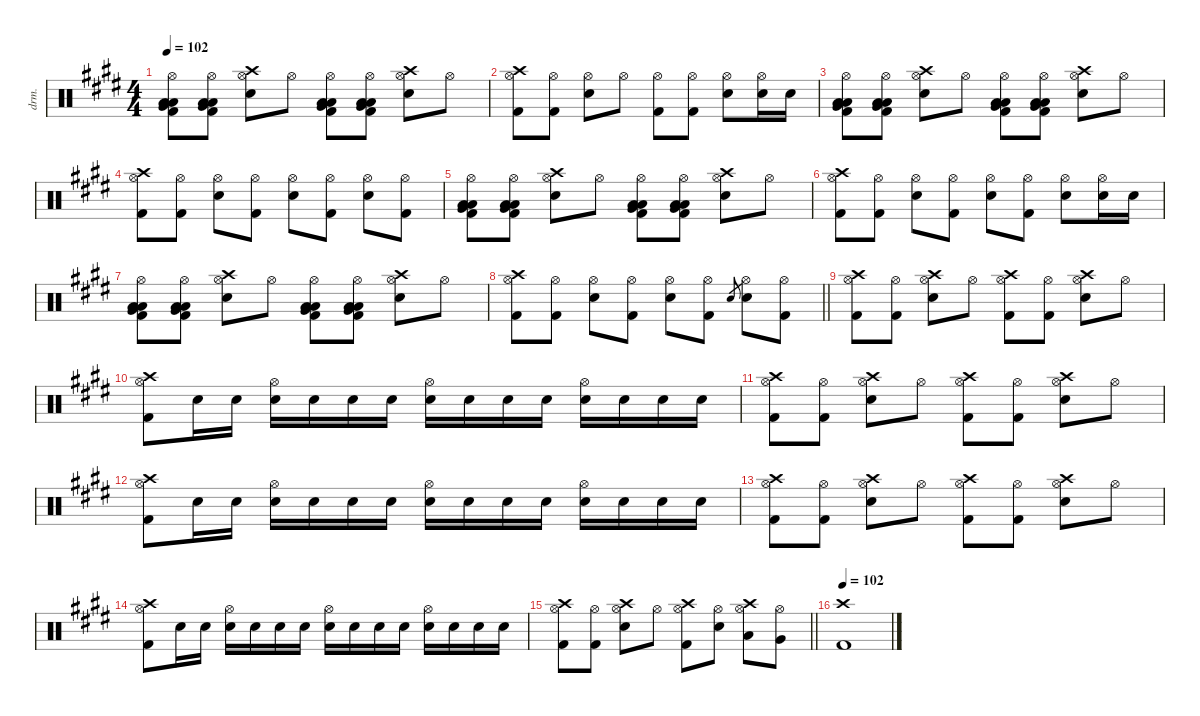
\defaultSystemsLayout 4
\hideDynamics
\bracketExtendMode nobrackets
\otherSystemsTrackNameOrientation horizontal
\track ("Percussion" "drm.") {instrument percussion}
\staff {score}
\articulation defaults
\ts (4 4)
\tempo 102
\clef neutral
\ks c#minor
("Kick (hit) 2"{acc forcenatural} "Hi-Hat (open)"{acc forcenatural} "Low Tom (hit)"{acc forcenatural} "Very Low Tom (hit)"{acc forcenatural} "Low Floor Tom (hit)"{acc forcenatural}).8{dy f beam Down} ("Kick (hit) 2"{acc forcenatural} "Hi-Hat (open)"{acc forcenatural} "Low Tom (hit)"{acc forcenatural} "Very Low Tom (hit)"{acc forcenatural} "Low Floor Tom (hit)"{acc forcenatural}).8{beam Down} ("Snare (hit) 2"{acc forcenatural} "Hi-Hat (open)"{acc forcenatural} "Crash high (hit)"{acc forcenatural}).8{beam Down} "Hi-Hat (open)"{acc forcenatural}.8{beam Down} ("Kick (hit) 2"{acc forcenatural} "Hi-Hat (open)"{acc forcenatural} "Low Tom (hit)"{acc forcenatural} "Very Low Tom (hit)"{acc forcenatural} "Low Floor Tom (hit)"{acc forcenatural}).8{beam Down} ("Kick (hit) 2"{acc forcenatural} "Hi-Hat (open)"{acc forcenatural} "Low Tom (hit)"{acc forcenatural} "Very Low Tom (hit)"{acc forcenatural} "Low Floor Tom (hit)"{acc forcenatural}).8{beam Down} ("Snare (hit) 2"{acc forcenatural} "Hi-Hat (open)"{acc forcenatural} "Crash high (hit)"{acc forcenatural}).8{beam Down} "Hi-Hat (open)"{acc forcenatural}.8{beam Down} |
("Kick (hit) 2"{acc forcenatural} "Hi-Hat (open)"{acc forcenatural} "Crash high (hit)"{acc forcenatural}).8{beam Down} ("Kick (hit) 2"{acc forcenatural} "Hi-Hat (open)"{acc forcenatural}).8{beam Down} ("Snare (hit) 2"{acc forcenatural} "Hi-Hat (open)"{acc forcenatural}).8{beam Down} "Hi-Hat (open)"{acc forcenatural}.8{beam Down} ("Kick (hit) 2"{acc forcenatural} "Hi-Hat (open)"{acc forcenatural}).8{beam Down} ("Kick (hit) 2"{acc forcenatural} "Hi-Hat (open)"{acc forcenatural}).8{beam Down} ("Snare (hit) 2"{acc forcenatural} "Hi-Hat (open)"{acc forcenatural}).8{beam Down} ("Snare (hit) 2"{acc forcenatural} "Hi-Hat (open)"{acc forcenatural}).16{beam Down} "Snare (hit) 2"{acc forcenatural}.16{beam Down} |
("Kick (hit) 2"{acc forcenatural} "Hi-Hat (open)"{acc forcenatural} "Low Tom (hit)"{acc forcenatural} "Very Low Tom (hit)"{acc forcenatural} "Low Floor Tom (hit)"{acc forcenatural}).8{beam Down} ("Kick (hit) 2"{acc forcenatural} "Hi-Hat (open)"{acc forcenatural} "Low Tom (hit)"{acc forcenatural} "Very Low Tom (hit)"{acc forcenatural} "Low Floor Tom (hit)"{acc forcenatural}).8{beam Down} ("Snare (hit) 2"{acc forcenatural} "Hi-Hat (open)"{acc forcenatural} "Crash high (hit)"{acc forcenatural}).8{beam Down} "Hi-Hat (open)"{acc forcenatural}.8{beam Down} ("Kick (hit) 2"{acc forcenatural} "Hi-Hat (open)"{acc forcenatural} "Low Tom (hit)"{acc forcenatural} "Very Low Tom (hit)"{acc forcenatural} "Low Floor Tom (hit)"{acc forcenatural}).8{beam Down} ("Kick (hit) 2"{acc forcenatural} "Hi-Hat (open)"{acc forcenatural} "Low Tom (hit)"{acc forcenatural} "Very Low Tom (hit)"{acc forcenatural} "Low Floor Tom (hit)"{acc forcenatural}).8{beam Down} ("Snare (hit) 2"{acc forcenatural} "Hi-Hat (open)"{acc forcenatural} "Crash high (hit)"{acc forcenatural}).8{beam Down} "Hi-Hat (open)"{acc forcenatural}.8{beam Down} |
("Kick (hit) 2"{acc forcenatural} "Hi-Hat (open)"{acc forcenatural} "Crash high (hit)"{acc forcenatural}).8{beam Down} ("Kick (hit) 2"{acc forcenatural} "Hi-Hat (open)"{acc forcenatural}).8{beam Down} ("Snare (hit) 2"{acc forcenatural} "Hi-Hat (open)"{acc forcenatural}).8{beam Down} ("Kick (hit) 2"{acc forcenatural} "Hi-Hat (open)"{acc forcenatural}).8{beam Down} ("Snare (hit) 2"{acc forcenatural} "Hi-Hat (open)"{acc forcenatural}).8{beam Down} ("Kick (hit) 2"{acc forcenatural} "Hi-Hat (open)"{acc forcenatural}).8{beam Down} ("Snare (hit) 2"{acc forcenatural} "Hi-Hat (open)"{acc forcenatural}).8{beam Down} ("Kick (hit) 2"{acc forcenatural} "Hi-Hat (open)"{acc forcenatural}).8{beam Down} |
("Kick (hit) 2"{acc forcenatural} "Hi-Hat (open)"{acc forcenatural} "Low Tom (hit)"{acc forcenatural} "Very Low Tom (hit)"{acc forcenatural} "Low Floor Tom (hit)"{acc forcenatural}).8{beam Down} ("Kick (hit) 2"{acc forcenatural} "Hi-Hat (open)"{acc forcenatural} "Low Tom (hit)"{acc forcenatural} "Very Low Tom (hit)"{acc forcenatural} "Low Floor Tom (hit)"{acc forcenatural}).8{beam Down} ("Snare (hit) 2"{acc forcenatural} "Hi-Hat (open)"{acc forcenatural} "Crash high (hit)"{acc forcenatural}).8{beam Down} "Hi-Hat (open)"{acc forcenatural}.8{beam Down} ("Kick (hit) 2"{acc forcenatural} "Hi-Hat (open)"{acc forcenatural} "Low Tom (hit)"{acc forcenatural} "Very Low Tom (hit)"{acc forcenatural} "Low Floor Tom (hit)"{acc forcenatural}).8{beam Down} ("Kick (hit) 2"{acc forcenatural} "Hi-Hat (open)"{acc forcenatural} "Low Tom (hit)"{acc forcenatural} "Very Low Tom (hit)"{acc forcenatural} "Low Floor Tom (hit)"{acc forcenatural}).8{beam Down} ("Snare (hit) 2"{acc forcenatural} "Hi-Hat (open)"{acc forcenatural} "Crash high (hit)"{acc forcenatural}).8{beam Down} "Hi-Hat (open)"{acc forcenatural}.8{beam Down} |
("Kick (hit) 2"{acc forcenatural} "Hi-Hat (open)"{acc forcenatural} "Crash high (hit)"{acc forcenatural}).8{beam Down} ("Kick (hit) 2"{acc forcenatural} "Hi-Hat (open)"{acc forcenatural}).8{beam Down} ("Snare (hit) 2"{acc forcenatural} "Hi-Hat (open)"{acc forcenatural}).8{beam Down} ("Kick (hit) 2"{acc forcenatural} "Hi-Hat (open)"{acc forcenatural}).8{beam Down} ("Snare (hit) 2"{acc forcenatural} "Hi-Hat (open)"{acc forcenatural}).8{beam Down} ("Kick (hit) 2"{acc forcenatural} "Hi-Hat (open)"{acc forcenatural}).8{beam Down} ("Snare (hit) 2"{acc forcenatural} "Hi-Hat (open)"{acc forcenatural}).8{beam Down} ("Snare (hit) 2"{acc forcenatural} "Hi-Hat (open)"{acc forcenatural}).16{beam Down} "Snare (hit) 2"{acc forcenatural}.16{beam Down} |
("Kick (hit) 2"{acc forcenatural} "Hi-Hat (open)"{acc forcenatural} "Low Tom (hit)"{acc forcenatural} "Very Low Tom (hit)"{acc forcenatural} "Low Floor Tom (hit)"{acc forcenatural}).8{beam Down} ("Kick (hit) 2"{acc forcenatural} "Hi-Hat (open)"{acc forcenatural} "Low Tom (hit)"{acc forcenatural} "Very Low Tom (hit)"{acc forcenatural} "Low Floor Tom (hit)"{acc forcenatural}).8{beam Down} ("Snare (hit) 2"{acc forcenatural} "Hi-Hat (open)"{acc forcenatural} "Crash high (hit)"{acc forcenatural}).8{beam Down} "Hi-Hat (open)"{acc forcenatural}.8{beam Down} ("Kick (hit) 2"{acc forcenatural} "Hi-Hat (open)"{acc forcenatural} "Low Tom (hit)"{acc forcenatural} "Very Low Tom (hit)"{acc forcenatural} "Low Floor Tom (hit)"{acc forcenatural}).8{beam Down} ("Kick (hit) 2"{acc forcenatural} "Hi-Hat (open)"{acc forcenatural} "Low Tom (hit)"{acc forcenatural} "Very Low Tom (hit)"{acc forcenatural} "Low Floor Tom (hit)"{acc forcenatural}).8{beam Down} ("Snare (hit) 2"{acc forcenatural} "Hi-Hat (open)"{acc forcenatural} "Crash high (hit)"{acc forcenatural}).8{beam Down} "Hi-Hat (open)"{acc forcenatural}.8{beam Down} |
\barLineRight lightlight
("Kick (hit) 2"{acc forcenatural} "Hi-Hat (open)"{acc forcenatural} "Crash high (hit)"{acc forcenatural}).8{beam Down} ("Kick (hit) 2"{acc forcenatural} "Hi-Hat (open)"{acc forcenatural}).8{beam Down} ("Snare (hit) 2"{acc forcenatural} "Hi-Hat (open)"{acc forcenatural}).8{beam Down} ("Kick (hit) 2"{acc forcenatural} "Hi-Hat (open)"{acc forcenatural}).8{beam Down} ("Snare (hit) 2"{acc forcenatural} "Hi-Hat (open)"{acc forcenatural}).8{beam Down} ("Kick (hit) 2"{acc forcenatural} "Hi-Hat (open)"{acc forcenatural}).8{beam Down} "Snare (hit) 2"{acc forcenatural}.8{gr dy mf beam Up} ("Snare (hit) 2"{acc forcenatural} "Hi-Hat (open)"{acc forcenatural}).8{dy f beam Down} ("Kick (hit) 2"{acc forcenatural} "Hi-Hat (open)"{acc forcenatural}).8{beam Down} |
("Kick (hit) 2"{acc forcenatural} "Hi-Hat (open)"{acc forcenatural} "Crash high (hit)"{acc forcenatural}).8{beam Down} ("Kick (hit) 2"{acc forcenatural} "Hi-Hat (open)"{acc forcenatural}).8{beam Down} ("Snare (hit) 2"{acc forcenatural} "Hi-Hat (open)"{acc forcenatural} "Crash high (hit)"{acc forcenatural}).8{beam Down} "Hi-Hat (open)"{acc forcenatural}.8{beam Down} ("Kick (hit) 2"{acc forcenatural} "Hi-Hat (open)"{acc forcenatural} "Crash high (hit)"{acc forcenatural}).8{beam Down} ("Kick (hit) 2"{acc forcenatural} "Hi-Hat (open)"{acc forcenatural}).8{beam Down} ("Snare (hit) 2"{acc forcenatural} "Hi-Hat (open)"{acc forcenatural} "Crash high (hit)"{acc forcenatural}).8{beam Down} "Hi-Hat (open)"{acc forcenatural}.8{beam Down} |
("Kick (hit) 2"{acc forcenatural} "Hi-Hat (open)"{acc forcenatural} "Crash high (hit)"{acc forcenatural}).8{beam Down} "Snare (hit) 2"{acc forcenatural}.16{beam Down} "Snare (hit) 2"{acc forcenatural}.16{beam Down} ("Snare (hit) 2"{acc forcenatural} "Hi-Hat (open)"{acc forcenatural}).16{beam Down} "Snare (hit) 2"{acc forcenatural}.16{beam Down} "Snare (hit) 2"{acc forcenatural}.16{beam Down} "Snare (hit) 2"{acc forcenatural}.16{beam Down} ("Snare (hit) 2"{acc forcenatural} "Hi-Hat (open)"{acc forcenatural}).16{beam Down} "Snare (hit) 2"{acc forcenatural}.16{beam Down} "Snare (hit) 2"{acc forcenatural}.16{beam Down} "Snare (hit) 2"{acc forcenatural}.16{beam Down} ("Snare (hit) 2"{acc forcenatural} "Hi-Hat (open)"{acc forcenatural}).16{beam Down} "Snare (hit) 2"{acc forcenatural}.16{beam Down} "Snare (hit) 2"{acc forcenatural}.16{beam Down} "Snare (hit) 2"{acc forcenatural}.16{beam Down} |
("Kick (hit) 2"{acc forcenatural} "Hi-Hat (open)"{acc forcenatural} "Crash high (hit)"{acc forcenatural}).8{beam Down} ("Kick (hit) 2"{acc forcenatural} "Hi-Hat (open)"{acc forcenatural}).8{beam Down} ("Snare (hit) 2"{acc forcenatural} "Hi-Hat (open)"{acc forcenatural} "Crash high (hit)"{acc forcenatural}).8{beam Down} "Hi-Hat (open)"{acc forcenatural}.8{beam Down} ("Kick (hit) 2"{acc forcenatural} "Hi-Hat (open)"{acc forcenatural} "Crash high (hit)"{acc forcenatural}).8{beam Down} ("Kick (hit) 2"{acc forcenatural} "Hi-Hat (open)"{acc forcenatural}).8{beam Down} ("Snare (hit) 2"{acc forcenatural} "Hi-Hat (open)"{acc forcenatural} "Crash high (hit)"{acc forcenatural}).8{beam Down} "Hi-Hat (open)"{acc forcenatural}.8{beam Down} |
("Kick (hit) 2"{acc forcenatural} "Hi-Hat (open)"{acc forcenatural} "Crash high (hit)"{acc forcenatural}).8{beam Down} "Snare (hit) 2"{acc forcenatural}.16{beam Down} "Snare (hit) 2"{acc forcenatural}.16{beam Down} ("Snare (hit) 2"{acc forcenatural} "Hi-Hat (open)"{acc forcenatural}).16{beam Down} "Snare (hit) 2"{acc forcenatural}.16{beam Down} "Snare (hit) 2"{acc forcenatural}.16{beam Down} "Snare (hit) 2"{acc forcenatural}.16{beam Down} ("Snare (hit) 2"{acc forcenatural} "Hi-Hat (open)"{acc forcenatural}).16{beam Down} "Snare (hit) 2"{acc forcenatural}.16{beam Down} "Snare (hit) 2"{acc forcenatural}.16{beam Down} "Snare (hit) 2"{acc forcenatural}.16{beam Down} ("Snare (hit) 2"{acc forcenatural} "Hi-Hat (open)"{acc forcenatural}).16{beam Down} "Snare (hit) 2"{acc forcenatural}.16{beam Down} "Snare (hit) 2"{acc forcenatural}.16{beam Down} "Snare (hit) 2"{acc forcenatural}.16{beam Down} |
("Kick (hit) 2"{acc forcenatural} "Hi-Hat (open)"{acc forcenatural} "Crash high (hit)"{acc forcenatural}).8{beam Down} ("Kick (hit) 2"{acc forcenatural} "Hi-Hat (open)"{acc forcenatural}).8{beam Down} ("Snare (hit) 2"{acc forcenatural} "Hi-Hat (open)"{acc forcenatural} "Crash high (hit)"{acc forcenatural}).8{beam Down} "Hi-Hat (open)"{acc forcenatural}.8{beam Down} ("Kick (hit) 2"{acc forcenatural} "Hi-Hat (open)"{acc forcenatural} "Crash high (hit)"{acc forcenatural}).8{beam Down} ("Kick (hit) 2"{acc forcenatural} "Hi-Hat (open)"{acc forcenatural}).8{beam Down} ("Snare (hit) 2"{acc forcenatural} "Hi-Hat (open)"{acc forcenatural} "Crash high (hit)"{acc forcenatural}).8{beam Down} "Hi-Hat (open)"{acc forcenatural}.8{beam Down} |
("Kick (hit) 2"{acc forcenatural} "Hi-Hat (open)"{acc forcenatural} "Crash high (hit)"{acc forcenatural}).8{beam Down} "Snare (hit) 2"{acc forcenatural}.16{beam Down} "Snare (hit) 2"{acc forcenatural}.16{beam Down} ("Snare (hit) 2"{acc forcenatural} "Hi-Hat (open)"{acc forcenatural}).16{beam Down} "Snare (hit) 2"{acc forcenatural}.16{beam Down} "Snare (hit) 2"{acc forcenatural}.16{beam Down} "Snare (hit) 2"{acc forcenatural}.16{beam Down} ("Snare (hit) 2"{acc forcenatural} "Hi-Hat (open)"{acc forcenatural}).16{beam Down} "Snare (hit) 2"{acc forcenatural}.16{beam Down} "Snare (hit) 2"{acc forcenatural}.16{beam Down} "Snare (hit) 2"{acc forcenatural}.16{beam Down} ("Snare (hit) 2"{acc forcenatural} "Hi-Hat (open)"{acc forcenatural}).16{beam Down} "Snare (hit) 2"{acc forcenatural}.16{beam Down} "Snare (hit) 2"{acc forcenatural}.16{beam Down} "Snare (hit) 2"{acc forcenatural}.16{beam Down} |
\barLineRight lightlight
("Kick (hit) 2"{acc forcenatural} "Hi-Hat (open)"{acc forcenatural} "Crash high (hit)"{acc forcenatural}).8{beam Down} ("Kick (hit) 2"{acc forcenatural} "Hi-Hat (open)"{acc forcenatural}).8{beam Down} ("Snare (hit) 2"{acc forcenatural} "Hi-Hat (open)"{acc forcenatural} "Crash high (hit)"{acc forcenatural}).8{beam Down} "Hi-Hat (open)"{acc forcenatural}.8{beam Down} ("Kick (hit) 2"{acc forcenatural} "Hi-Hat (open)"{acc forcenatural} "Crash high (hit)"{acc forcenatural}).8{beam Down} ("Snare (hit) 2"{acc forcenatural} "Hi-Hat (open)"{acc forcenatural}).8{beam Down} ("Low Tom (hit)"{acc forcenatural} "Hi-Hat (open)"{acc forcenatural} "Crash high (hit)"{acc forcenatural}).8{beam Down} ("Very Low Tom (hit)"{acc forcenatural} "Hi-Hat (open)"{acc forcenatural}).8{beam Down} |
\tempo 102
("Kick (hit) 2"{acc forcenatural} "Crash high (hit)"{acc forcenatural}).1{beam Down}
